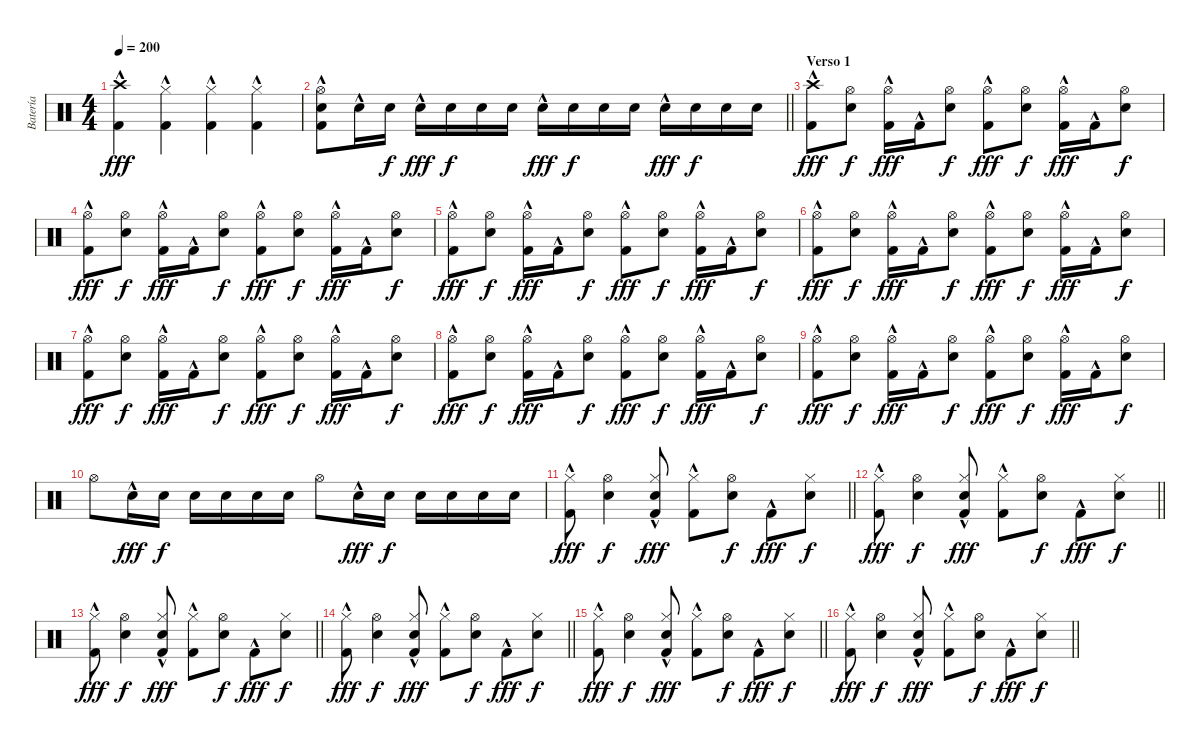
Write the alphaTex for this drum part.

\track ("Batería" "Batería") {instrument percussion bank 6}
\staff {score}
\articulation defaults
\ts (4 4)
\tempo 200
\clef neutral
\ks c
("Crash high (hit)" "Kick (hit) 2"{hac}).4{dy fff} ("Hi-Hat (closed)" "Kick (hit) 2"{hac}).4 ("Hi-Hat (closed)" "Kick (hit) 2"{hac}).4 ("Hi-Hat (closed)" "Kick (hit) 2"{hac}).4 |
\barLineRight lightlight
("Snare (hit) 2" "Hi-Hat (open)" "Kick (hit) 2"{hac}).8 "Snare (hit) 2"{hac}.16 "Snare (hit) 2".16{dy f} "Snare (hit) 2"{hac}.16{dy fff} "Snare (hit) 2".16{dy f} "Snare (hit) 2".16 "Snare (hit) 2".16 "Snare (hit) 2"{hac}.16{dy fff} "Snare (hit) 2".16{dy f} "Snare (hit) 2".16 "Snare (hit) 2".16 "Snare (hit) 2"{hac}.16{dy fff} "Snare (hit) 2".16{dy f} "Snare (hit) 2".16 "Snare (hit) 2".16 |
\section ("" "Verso 1")
("Crash high (hit)" "Kick (hit) 2"{hac}).8{dy fff} ("Snare (hit) 2" "Hi-Hat (open)").8{dy f} ("Hi-Hat (open)" "Kick (hit) 2"{hac}).16{dy fff} "Kick (hit) 2"{hac}.16 ("Snare (hit) 2" "Hi-Hat (open)").8{dy f} ("Hi-Hat (open)" "Kick (hit) 2"{hac}).8{dy fff} ("Snare (hit) 2" "Hi-Hat (open)").8{dy f} ("Hi-Hat (open)" "Kick (hit) 2"{hac}).16{dy fff} "Kick (hit) 2"{hac}.16 ("Snare (hit) 2" "Hi-Hat (open)").8{dy f} |
("Hi-Hat (open)" "Kick (hit) 2"{hac}).8{dy fff} ("Snare (hit) 2" "Hi-Hat (open)").8{dy f} ("Hi-Hat (open)" "Kick (hit) 2"{hac}).16{dy fff} "Kick (hit) 2"{hac}.16 ("Snare (hit) 2" "Hi-Hat (open)").8{dy f} ("Hi-Hat (open)" "Kick (hit) 2"{hac}).8{dy fff} ("Snare (hit) 2" "Hi-Hat (open)").8{dy f} ("Hi-Hat (open)" "Kick (hit) 2"{hac}).16{dy fff} "Kick (hit) 2"{hac}.16 ("Snare (hit) 2" "Hi-Hat (open)").8{dy f} |
("Hi-Hat (open)" "Kick (hit) 2"{hac}).8{dy fff} ("Snare (hit) 2" "Hi-Hat (open)").8{dy f} ("Hi-Hat (open)" "Kick (hit) 2"{hac}).16{dy fff} "Kick (hit) 2"{hac}.16 ("Snare (hit) 2" "Hi-Hat (open)").8{dy f} ("Hi-Hat (open)" "Kick (hit) 2"{hac}).8{dy fff} ("Snare (hit) 2" "Hi-Hat (open)").8{dy f} ("Hi-Hat (open)" "Kick (hit) 2"{hac}).16{dy fff} "Kick (hit) 2"{hac}.16 ("Snare (hit) 2" "Hi-Hat (open)").8{dy f} |
("Hi-Hat (open)" "Kick (hit) 2"{hac}).8{dy fff} ("Snare (hit) 2" "Hi-Hat (open)").8{dy f} ("Hi-Hat (open)" "Kick (hit) 2"{hac}).16{dy fff} "Kick (hit) 2"{hac}.16 ("Snare (hit) 2" "Hi-Hat (open)").8{dy f} ("Hi-Hat (open)" "Kick (hit) 2"{hac}).8{dy fff} ("Snare (hit) 2" "Hi-Hat (open)").8{dy f} ("Hi-Hat (open)" "Kick (hit) 2"{hac}).16{dy fff} "Kick (hit) 2"{hac}.16 ("Snare (hit) 2" "Hi-Hat (open)").8{dy f} |
("Hi-Hat (open)" "Kick (hit) 2"{hac}).8{dy fff} ("Snare (hit) 2" "Hi-Hat (open)").8{dy f} ("Hi-Hat (open)" "Kick (hit) 2"{hac}).16{dy fff} "Kick (hit) 2"{hac}.16 ("Snare (hit) 2" "Hi-Hat (open)").8{dy f} ("Hi-Hat (open)" "Kick (hit) 2"{hac}).8{dy fff} ("Snare (hit) 2" "Hi-Hat (open)").8{dy f} ("Hi-Hat (open)" "Kick (hit) 2"{hac}).16{dy fff} "Kick (hit) 2"{hac}.16 ("Snare (hit) 2" "Hi-Hat (open)").8{dy f} |
("Hi-Hat (open)" "Kick (hit) 2"{hac}).8{dy fff} ("Snare (hit) 2" "Hi-Hat (open)").8{dy f} ("Hi-Hat (open)" "Kick (hit) 2"{hac}).16{dy fff} "Kick (hit) 2"{hac}.16 ("Snare (hit) 2" "Hi-Hat (open)").8{dy f} ("Hi-Hat (open)" "Kick (hit) 2"{hac}).8{dy fff} ("Snare (hit) 2" "Hi-Hat (open)").8{dy f} ("Hi-Hat (open)" "Kick (hit) 2"{hac}).16{dy fff} "Kick (hit) 2"{hac}.16 ("Snare (hit) 2" "Hi-Hat (open)").8{dy f} |
("Hi-Hat (open)" "Kick (hit) 2"{hac}).8{dy fff} ("Snare (hit) 2" "Hi-Hat (open)").8{dy f} ("Hi-Hat (open)" "Kick (hit) 2"{hac}).16{dy fff} "Kick (hit) 2"{hac}.16 ("Snare (hit) 2" "Hi-Hat (open)").8{dy f} ("Hi-Hat (open)" "Kick (hit) 2"{hac}).8{dy fff} ("Snare (hit) 2" "Hi-Hat (open)").8{dy f} ("Hi-Hat (open)" "Kick (hit) 2"{hac}).16{dy fff} "Kick (hit) 2"{hac}.16 ("Snare (hit) 2" "Hi-Hat (open)").8{dy f} |
"Hi-Hat (open)".8 "Snare (hit) 2"{hac}.16{dy fff} "Snare (hit) 2".16{dy f} "Snare (hit) 2".16 "Snare (hit) 2".16 "Snare (hit) 2".16 "Snare (hit) 2".16 "Hi-Hat (open)".8 "Snare (hit) 2"{hac}.16{dy fff} "Snare (hit) 2".16{dy f} "Snare (hit) 2".16 "Snare (hit) 2".16 "Snare (hit) 2".16 "Snare (hit) 2".16 |
\barLineRight lightlight
("Hi-Hat (closed)" "Kick (hit) 2"{hac}).8{dy fff} ("Snare (hit) 2" "Hi-Hat (open)").4{dy f} ("Snare (hit) 2" "Hi-Hat (closed)" "Kick (hit) 2"{hac}).8{dy fff} ("Hi-Hat (closed)" "Kick (hit) 2"{hac}).8 ("Snare (hit) 2" "Hi-Hat (open)").8{dy f} "Kick (hit) 2"{hac}.8{dy fff} ("Snare (hit) 2" "Hi-Hat (closed)").8{dy f} |
\barLineRight lightlight
("Hi-Hat (closed)" "Kick (hit) 2"{hac}).8{dy fff} ("Snare (hit) 2" "Hi-Hat (open)").4{dy f} ("Snare (hit) 2" "Hi-Hat (closed)" "Kick (hit) 2"{hac}).8{dy fff} ("Hi-Hat (closed)" "Kick (hit) 2"{hac}).8 ("Snare (hit) 2" "Hi-Hat (open)").8{dy f} "Kick (hit) 2"{hac}.8{dy fff} ("Snare (hit) 2" "Hi-Hat (closed)").8{dy f} |
\barLineRight lightlight
("Hi-Hat (closed)" "Kick (hit) 2"{hac}).8{dy fff} ("Snare (hit) 2" "Hi-Hat (open)").4{dy f} ("Snare (hit) 2" "Hi-Hat (closed)" "Kick (hit) 2"{hac}).8{dy fff} ("Hi-Hat (closed)" "Kick (hit) 2"{hac}).8 ("Snare (hit) 2" "Hi-Hat (open)").8{dy f} "Kick (hit) 2"{hac}.8{dy fff} ("Snare (hit) 2" "Hi-Hat (closed)").8{dy f} |
\barLineRight lightlight
("Hi-Hat (closed)" "Kick (hit) 2"{hac}).8{dy fff} ("Snare (hit) 2" "Hi-Hat (open)").4{dy f} ("Snare (hit) 2" "Hi-Hat (closed)" "Kick (hit) 2"{hac}).8{dy fff} ("Hi-Hat (closed)" "Kick (hit) 2"{hac}).8 ("Snare (hit) 2" "Hi-Hat (open)").8{dy f} "Kick (hit) 2"{hac}.8{dy fff} ("Snare (hit) 2" "Hi-Hat (closed)").8{dy f} |
\barLineRight lightlight
("Hi-Hat (closed)" "Kick (hit) 2"{hac}).8{dy fff} ("Snare (hit) 2" "Hi-Hat (open)").4{dy f} ("Snare (hit) 2" "Hi-Hat (closed)" "Kick (hit) 2"{hac}).8{dy fff} ("Hi-Hat (closed)" "Kick (hit) 2"{hac}).8 ("Snare (hit) 2" "Hi-Hat (open)").8{dy f} "Kick (hit) 2"{hac}.8{dy fff} ("Snare (hit) 2" "Hi-Hat (closed)").8{dy f} |
\barLineRight lightlight
("Hi-Hat (closed)" "Kick (hit) 2"{hac}).8{dy fff} ("Snare (hit) 2" "Hi-Hat (open)").4{dy f} ("Snare (hit) 2" "Hi-Hat (closed)" "Kick (hit) 2"{hac}).8{dy fff} ("Hi-Hat (closed)" "Kick (hit) 2"{hac}).8 ("Snare (hit) 2" "Hi-Hat (open)").8{dy f} "Kick (hit) 2"{hac}.8{dy fff} ("Snare (hit) 2" "Hi-Hat (closed)").8{dy f}
